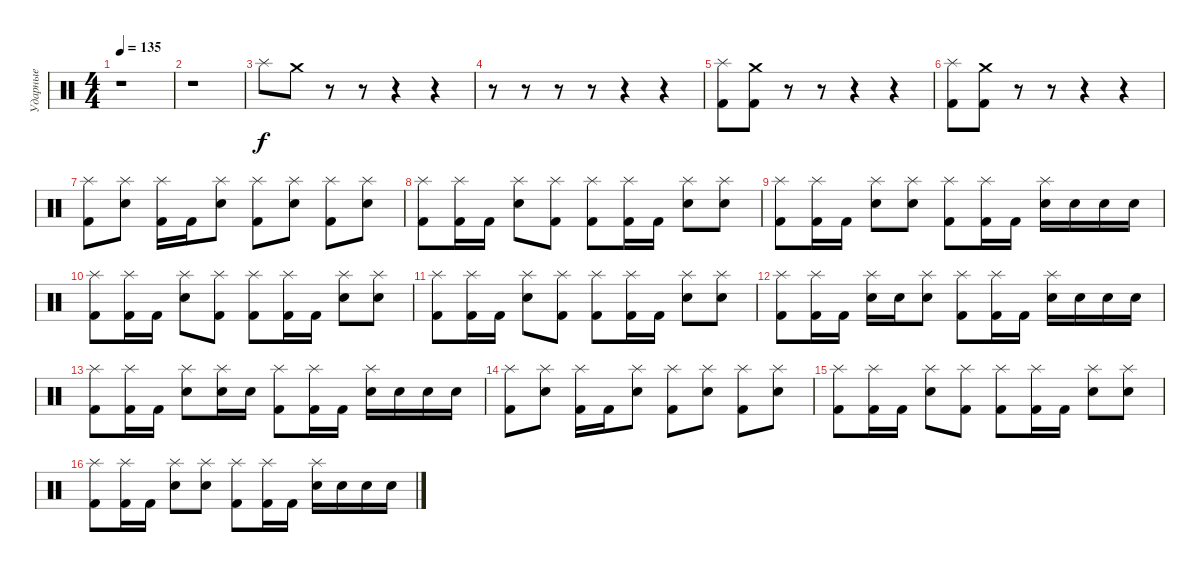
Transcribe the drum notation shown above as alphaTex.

\track ("Ударные" "Ударные") {instrument percussion}
\staff {score}
\articulation defaults
\ts (4 4)
\tempo 135
\clef neutral
\ks c
r.1{dy f} |
r.1 |
"Splash (hit)".8 "Crash medium (hit)".8 r.8 r.8 r.4 r.4 |
r.8 r.8 r.8 r.8 r.4 r.4 |
("Splash (hit)" "Kick (hit) 2").8 ("Crash medium (hit)" "Kick (hit) 2").8 r.8 r.8 r.4 r.4 |
("Splash (hit)" "Kick (hit) 2").8 ("Crash medium (hit)" "Kick (hit) 2").8 r.8 r.8 r.4 r.4 |
("Splash (hit)" "Kick (hit) 2").8 ("Splash (hit)" "Snare (hit) 2").8 ("Splash (hit)" "Kick (hit) 2").16 "Kick (hit) 2".16 ("Splash (hit)" "Snare (hit) 2").8 ("Splash (hit)" "Kick (hit) 2").8 ("Splash (hit)" "Snare (hit) 2").8 ("Splash (hit)" "Kick (hit) 2").8 ("Splash (hit)" "Snare (hit) 2").8 |
("Splash (hit)" "Kick (hit) 2").8 ("Splash (hit)" "Kick (hit) 2").16 "Kick (hit) 2".16 ("Splash (hit)" "Snare (hit) 2").8 ("Splash (hit)" "Kick (hit) 2").8 ("Splash (hit)" "Kick (hit) 2").8 ("Splash (hit)" "Kick (hit) 2").16 "Kick (hit) 2".16 ("Splash (hit)" "Snare (hit) 2").8 ("Splash (hit)" "Snare (hit) 2").8 |
("Splash (hit)" "Kick (hit) 2").8 ("Splash (hit)" "Kick (hit) 2").16 "Kick (hit) 2".16 ("Splash (hit)" "Snare (hit) 2").8 ("Splash (hit)" "Snare (hit) 2").8 ("Splash (hit)" "Kick (hit) 2").8 ("Splash (hit)" "Kick (hit) 2").16 "Kick (hit) 2".16 ("Splash (hit)" "Snare (hit) 2").16 "Snare (hit) 2".16 "Snare (hit) 2".16 "Snare (hit) 2".16 |
("Splash (hit)" "Kick (hit) 2").8 ("Splash (hit)" "Kick (hit) 2").16 "Kick (hit) 2".16 ("Splash (hit)" "Snare (hit) 2").8 ("Splash (hit)" "Kick (hit) 2").8 ("Splash (hit)" "Kick (hit) 2").8 ("Splash (hit)" "Kick (hit) 2").16 "Kick (hit) 2".16 ("Splash (hit)" "Snare (hit) 2").8 ("Splash (hit)" "Snare (hit) 2").8 |
("Splash (hit)" "Kick (hit) 2").8 ("Splash (hit)" "Kick (hit) 2").16 "Kick (hit) 2".16 ("Splash (hit)" "Snare (hit) 2").8 ("Splash (hit)" "Kick (hit) 2").8 ("Splash (hit)" "Kick (hit) 2").8 ("Splash (hit)" "Kick (hit) 2").16 "Kick (hit) 2".16 ("Splash (hit)" "Snare (hit) 2").8 ("Splash (hit)" "Snare (hit) 2").8 |
("Splash (hit)" "Kick (hit) 2").8 ("Splash (hit)" "Kick (hit) 2").16 "Kick (hit) 2".16 ("Splash (hit)" "Snare (hit) 2").16 "Snare (hit) 2".16 ("Splash (hit)" "Snare (hit) 2").8 ("Splash (hit)" "Kick (hit) 2").8 ("Splash (hit)" "Kick (hit) 2").16 "Kick (hit) 2".16 ("Splash (hit)" "Snare (hit) 2").16 "Snare (hit) 2".16 "Snare (hit) 2".16 "Snare (hit) 2".16 |
("Splash (hit)" "Kick (hit) 2").8 ("Splash (hit)" "Kick (hit) 2").16 "Kick (hit) 2".16 ("Splash (hit)" "Snare (hit) 2").8 ("Splash (hit)" "Snare (hit) 2").16 "Snare (hit) 2".16 ("Splash (hit)" "Kick (hit) 2").8 ("Splash (hit)" "Kick (hit) 2").16 "Kick (hit) 2".16 ("Splash (hit)" "Snare (hit) 2").16 "Snare (hit) 2".16 "Snare (hit) 2".16 "Snare (hit) 2".16 |
("Splash (hit)" "Kick (hit) 2").8 ("Splash (hit)" "Snare (hit) 2").8 ("Splash (hit)" "Kick (hit) 2").16 "Kick (hit) 2".16 ("Splash (hit)" "Snare (hit) 2").8 ("Splash (hit)" "Kick (hit) 2").8 ("Splash (hit)" "Snare (hit) 2").8 ("Splash (hit)" "Kick (hit) 2").8 ("Splash (hit)" "Snare (hit) 2").8 |
("Splash (hit)" "Kick (hit) 2").8 ("Splash (hit)" "Kick (hit) 2").16 "Kick (hit) 2".16 ("Splash (hit)" "Snare (hit) 2").8 ("Splash (hit)" "Kick (hit) 2").8 ("Splash (hit)" "Kick (hit) 2").8 ("Splash (hit)" "Kick (hit) 2").16 "Kick (hit) 2".16 ("Splash (hit)" "Snare (hit) 2").8 ("Splash (hit)" "Snare (hit) 2").8 |
("Splash (hit)" "Kick (hit) 2").8 ("Splash (hit)" "Kick (hit) 2").16 "Kick (hit) 2".16 ("Splash (hit)" "Snare (hit) 2").8 ("Splash (hit)" "Snare (hit) 2").8 ("Splash (hit)" "Kick (hit) 2").8 ("Splash (hit)" "Kick (hit) 2").16 "Kick (hit) 2".16 ("Splash (hit)" "Snare (hit) 2").16 "Snare (hit) 2".16 "Snare (hit) 2".16 "Snare (hit) 2".16
